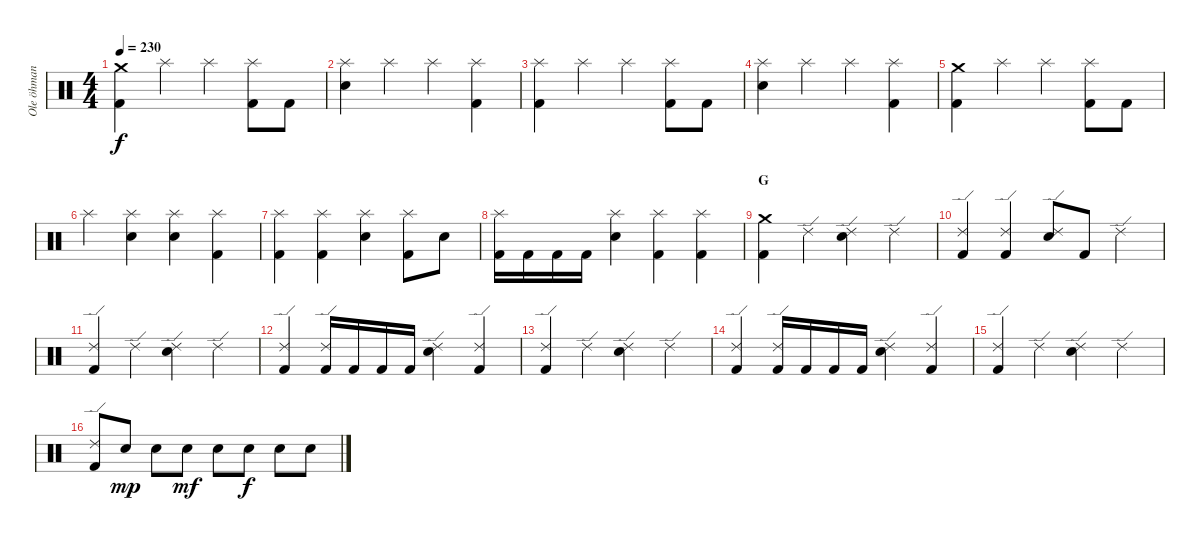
\track ("Ole öhman" "Ole öhman") {instrument percussion}
\staff {score}
\articulation defaults
\ts (4 4)
\tempo 230
\clef neutral
\ks c
("Crash medium (hit)" "Kick (hit) 2").4{dy f} "Splash (hit)".4 "Splash (hit)".4 ("Splash (hit)" "Kick (hit) 2").8 "Kick (hit) 2".8 |
("Splash (hit)" "Electric Snare (hit)").4 "Splash (hit)".4 "Splash (hit)".4 ("Splash (hit)" "Kick (hit) 2").4 |
("Splash (hit)" "Kick (hit) 2").4 "Splash (hit)".4 "Splash (hit)".4 ("Splash (hit)" "Kick (hit) 2").8 "Kick (hit) 2".8 |
("Splash (hit)" "Electric Snare (hit)").4 "Splash (hit)".4 "Splash (hit)".4 ("Splash (hit)" "Kick (hit) 2").4 |
("Crash medium (hit)" "Kick (hit) 2").4 "Splash (hit)".4 "Splash (hit)".4 ("Splash (hit)" "Kick (hit) 2").8 "Kick (hit) 2".8 |
"Splash (hit)".4 ("Splash (hit)" "Electric Snare (hit)").4 ("Splash (hit)" "Electric Snare (hit)").4 ("Splash (hit)" "Kick (hit) 2").4 |
("Splash (hit)" "Kick (hit) 2").4 ("Splash (hit)" "Kick (hit) 2").4 ("Splash (hit)" "Electric Snare (hit)").4 ("Splash (hit)" "Kick (hit) 2").8 "Electric Snare (hit)".8 |
("Splash (hit)" "Kick (hit) 2").16 "Kick (hit) 2".16 "Kick (hit) 2".16 "Kick (hit) 2".16 ("Splash (hit)" "Electric Snare (hit)").4 ("Splash (hit)" "Kick (hit) 2").4 ("Splash (hit)" "Kick (hit) 2").4 |
\section ("" "G")
("Crash medium (hit)" "Kick (hit) 2").4 "Ride (edge) 2".4 ("Ride (edge) 2" "Electric Snare (hit)").4 "Ride (edge) 2".4 |
("Ride (edge) 2" "Kick (hit) 2").4 ("Ride (edge) 2" "Kick (hit) 2").4 ("Ride (edge) 2" "Electric Snare (hit)").8 "Kick (hit) 2".8 "Ride (edge) 2".4 |
("Ride (edge) 2" "Kick (hit) 2").4 "Ride (edge) 2".4 ("Ride (edge) 2" "Electric Snare (hit)").4 "Ride (edge) 2".4 |
("Ride (edge) 2" "Kick (hit) 2").4 ("Ride (edge) 2" "Kick (hit) 2").16 "Kick (hit) 2".16 "Kick (hit) 2".16 "Kick (hit) 2".16 ("Ride (edge) 2" "Electric Snare (hit)").4 ("Ride (edge) 2" "Kick (hit) 2").4 |
("Ride (edge) 2" "Kick (hit) 2").4 "Ride (edge) 2".4 ("Ride (edge) 2" "Electric Snare (hit)").4 "Ride (edge) 2".4 |
("Ride (edge) 2" "Kick (hit) 2").4 ("Ride (edge) 2" "Kick (hit) 2").16 "Kick (hit) 2".16 "Kick (hit) 2".16 "Kick (hit) 2".16 ("Ride (edge) 2" "Electric Snare (hit)").4 ("Ride (edge) 2" "Kick (hit) 2").4 |
("Ride (edge) 2" "Kick (hit) 2").4 "Ride (edge) 2".4 ("Ride (edge) 2" "Electric Snare (hit)").4 "Ride (edge) 2".4 |
("Ride (edge) 2" "Kick (hit) 2").8 "Electric Snare (hit)".8{dy mp} "Electric Snare (hit)".8 "Electric Snare (hit)".8{dy mf} "Electric Snare (hit)".8 "Electric Snare (hit)".8{dy f} "Electric Snare (hit)".8 "Electric Snare (hit)".8
